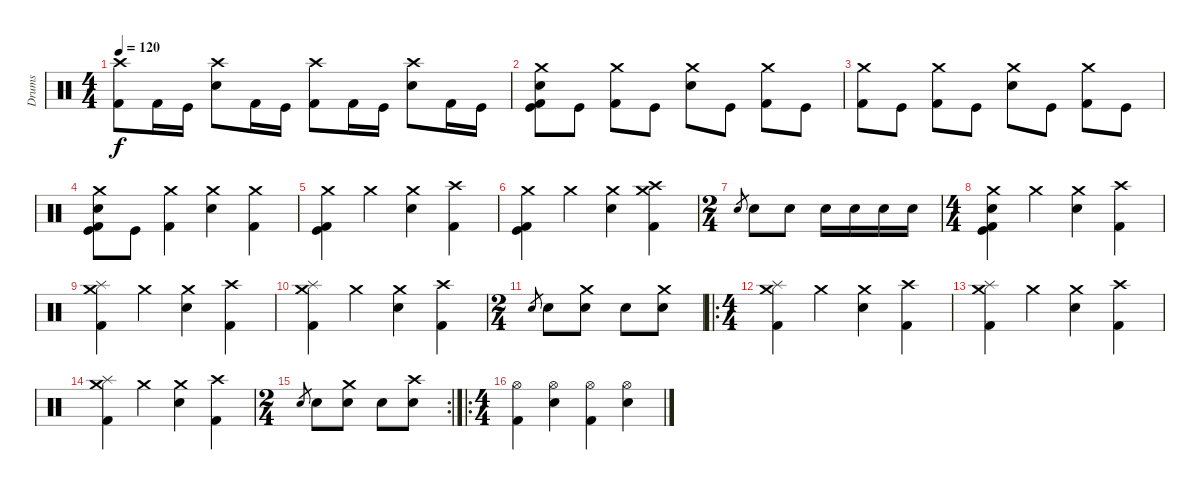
\track ("Drums" "Drums") {instrument percussion}
\staff {score}
\articulation defaults
\ts (4 4)
\tempo 120
\clef neutral
\ks c
("Crash high (hit)" "Kick (hit) 2").8{dy f} "Kick (hit) 2".16 "Kick (hit)".16 ("Crash high (hit)" "Snare (hit) 2").8 "Kick (hit) 2".16 "Kick (hit)".16 ("Crash high (hit)" "Kick (hit) 2").8 "Kick (hit) 2".16 "Kick (hit)".16 ("Crash high (hit)" "Snare (hit) 2").8 "Kick (hit) 2".16 "Kick (hit)".16 |
("Crash medium (hit)" "Snare (hit) 2" "Kick (hit)" "Kick (hit) 2").8 "Kick (hit)".8 ("Crash medium (hit)" "Kick (hit) 2").8 "Kick (hit)".8 ("Crash medium (hit)" "Snare (hit) 2").8 "Kick (hit)".8 ("Crash medium (hit)" "Kick (hit) 2").8 "Kick (hit)".8 |
("Crash medium (hit)" "Kick (hit) 2").8 "Kick (hit)".8 ("Crash medium (hit)" "Kick (hit) 2").8 "Kick (hit)".8 ("Crash medium (hit)" "Snare (hit) 2").8 "Kick (hit)".8 ("Crash medium (hit)" "Kick (hit) 2").8 "Kick (hit)".8 |
("Crash medium (hit)" "Snare (hit) 2" "Kick (hit)" "Kick (hit) 2").8 "Kick (hit)".8 ("Crash medium (hit)" "Kick (hit) 2").4 ("Crash medium (hit)" "Snare (hit) 2").4 ("Crash medium (hit)" "Kick (hit) 2").4 |
("Crash medium (hit)" "Kick (hit)" "Kick (hit) 2").4 "Crash medium (hit)".4 ("Crash medium (hit)" "Snare (hit) 2").4 ("Crash high (hit)" "Kick (hit) 2").4 |
("Crash medium (hit)" "Kick (hit)" "Kick (hit) 2").4 "Crash medium (hit)".4 ("Crash medium (hit)" "Snare (hit) 2").4 ("Crash medium (hit)" "Crash high (hit)" "Kick (hit) 2").4 |
\ts (2 4)
"Snare (hit) 2".8{gr} "Snare (hit) 2".8 "Snare (hit) 2".8 "Snare (hit) 2".16 "Snare (hit) 2".16 "Snare (hit) 2".16 "Snare (hit) 2".16 |
\ts (4 4)
("Crash medium (hit)" "Snare (hit) 2" "Kick (hit)" "Kick (hit) 2").4 "Crash medium (hit)".4 ("Crash medium (hit)" "Snare (hit) 2").4 ("Crash high (hit)" "Kick (hit) 2").4 |
("Splash (hit)" "Crash medium (hit)" "Kick (hit) 2").4 "Crash medium (hit)".4 ("Crash medium (hit)" "Snare (hit) 2").4 ("Crash high (hit)" "Kick (hit) 2").4 |
("Splash (hit)" "Crash medium (hit)" "Kick (hit) 2").4 "Crash medium (hit)".4 ("Crash medium (hit)" "Snare (hit) 2").4 ("Crash high (hit)" "Kick (hit) 2").4 |
\ts (2 4)
"Snare (hit) 2".8{gr} "Snare (hit) 2".8 ("Crash medium (hit)" "Snare (hit) 2").8 "Snare (hit) 2".8 ("Crash medium (hit)" "Snare (hit) 2").8 |
\ro
\ts (4 4)
("Splash (hit)" "Crash medium (hit)" "Kick (hit) 2").4 "Crash medium (hit)".4 ("Crash medium (hit)" "Snare (hit) 2").4 ("Crash high (hit)" "Kick (hit) 2").4 |
("Splash (hit)" "Crash medium (hit)" "Kick (hit) 2").4 "Crash medium (hit)".4 ("Crash medium (hit)" "Snare (hit) 2").4 ("Crash high (hit)" "Kick (hit) 2").4 |
("Splash (hit)" "Crash medium (hit)" "Kick (hit) 2").4 "Crash medium (hit)".4 ("Crash medium (hit)" "Snare (hit) 2").4 ("Crash high (hit)" "Kick (hit) 2").4 |
\rc 2
\ts (2 4)
"Snare (hit) 2".8{gr} "Snare (hit) 2".8 ("Crash medium (hit)" "Snare (hit) 2").8 "Snare (hit) 2".8 ("Crash high (hit)" "Snare (hit) 2").8 |
\ro
\ts (4 4)
("Hi-Hat (open)" "Kick (hit) 2").4 ("Hi-Hat (open)" "Electric Snare (hit)").4 ("Hi-Hat (open)" "Kick (hit) 2").4 ("Hi-Hat (open)" "Electric Snare (hit)").4
